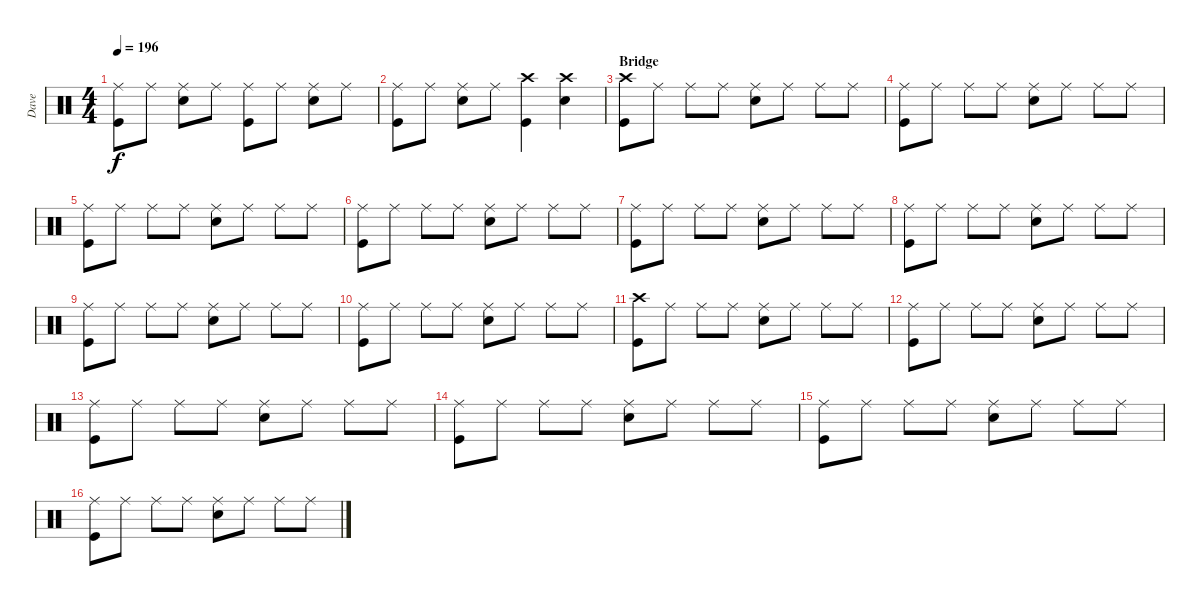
\track ("Dave" "Dave") {instrument percussion}
\staff {score}
\articulation defaults
\ts (4 4)
\tempo 196
\clef neutral
\ks c
("Ride (middle)" "Kick (hit)").8{dy f} "Ride (middle)".8 ("Ride (middle)" "Snare (hit) 2").8 "Ride (middle)".8 ("Ride (middle)" "Kick (hit)").8 "Ride (middle)".8 ("Ride (middle)" "Snare (hit) 2").8 "Ride (middle)".8 |
("Ride (middle)" "Kick (hit)").8 "Ride (middle)".8 ("Ride (middle)" "Snare (hit) 2").8 "Ride (middle)".8 ("Crash high (hit)" "Kick (hit)").4 ("Crash high (hit)" "Snare (hit) 2").4 |
\section ("" "Bridge")
("Crash high (hit)" "Kick (hit)").8 "Ride (middle)".8 "Ride (middle)".8 "Ride (middle)".8 ("Ride (middle)" "Snare (hit) 2").8 "Ride (middle)".8 "Ride (middle)".8 "Ride (middle)".8 |
("Ride (middle)" "Kick (hit)").8 "Ride (middle)".8 "Ride (middle)".8 "Ride (middle)".8 ("Ride (middle)" "Snare (hit) 2").8 "Ride (middle)".8 "Ride (middle)".8 "Ride (middle)".8 |
("Ride (middle)" "Kick (hit)").8 "Ride (middle)".8 "Ride (middle)".8 "Ride (middle)".8 ("Ride (middle)" "Snare (hit) 2").8 "Ride (middle)".8 "Ride (middle)".8 "Ride (middle)".8 |
("Ride (middle)" "Kick (hit)").8 "Ride (middle)".8 "Ride (middle)".8 "Ride (middle)".8 ("Ride (middle)" "Snare (hit) 2").8 "Ride (middle)".8 "Ride (middle)".8 "Ride (middle)".8 |
("Ride (middle)" "Kick (hit)").8 "Ride (middle)".8 "Ride (middle)".8 "Ride (middle)".8 ("Ride (middle)" "Snare (hit) 2").8 "Ride (middle)".8 "Ride (middle)".8 "Ride (middle)".8 |
("Ride (middle)" "Kick (hit)").8 "Ride (middle)".8 "Ride (middle)".8 "Ride (middle)".8 ("Ride (middle)" "Snare (hit) 2").8 "Ride (middle)".8 "Ride (middle)".8 "Ride (middle)".8 |
("Ride (middle)" "Kick (hit)").8 "Ride (middle)".8 "Ride (middle)".8 "Ride (middle)".8 ("Ride (middle)" "Snare (hit) 2").8 "Ride (middle)".8 "Ride (middle)".8 "Ride (middle)".8 |
("Ride (middle)" "Kick (hit)").8 "Ride (middle)".8 "Ride (middle)".8 "Ride (middle)".8 ("Ride (middle)" "Snare (hit) 2").8 "Ride (middle)".8 "Ride (middle)".8 "Ride (middle)".8 |
("Crash high (hit)" "Kick (hit)").8 "Ride (middle)".8 "Ride (middle)".8 "Ride (middle)".8 ("Ride (middle)" "Snare (hit) 2").8 "Ride (middle)".8 "Ride (middle)".8 "Ride (middle)".8 |
("Ride (middle)" "Kick (hit)").8 "Ride (middle)".8 "Ride (middle)".8 "Ride (middle)".8 ("Ride (middle)" "Snare (hit) 2").8 "Ride (middle)".8 "Ride (middle)".8 "Ride (middle)".8 |
("Ride (middle)" "Kick (hit)").8 "Ride (middle)".8 "Ride (middle)".8 "Ride (middle)".8 ("Ride (middle)" "Snare (hit) 2").8 "Ride (middle)".8 "Ride (middle)".8 "Ride (middle)".8 |
("Ride (middle)" "Kick (hit)").8 "Ride (middle)".8 "Ride (middle)".8 "Ride (middle)".8 ("Ride (middle)" "Snare (hit) 2").8 "Ride (middle)".8 "Ride (middle)".8 "Ride (middle)".8 |
("Ride (middle)" "Kick (hit)").8 "Ride (middle)".8 "Ride (middle)".8 "Ride (middle)".8 ("Ride (middle)" "Snare (hit) 2").8 "Ride (middle)".8 "Ride (middle)".8 "Ride (middle)".8 |
("Ride (middle)" "Kick (hit)").8 "Ride (middle)".8 "Ride (middle)".8 "Ride (middle)".8 ("Ride (middle)" "Snare (hit) 2").8 "Ride (middle)".8 "Ride (middle)".8 "Ride (middle)".8
